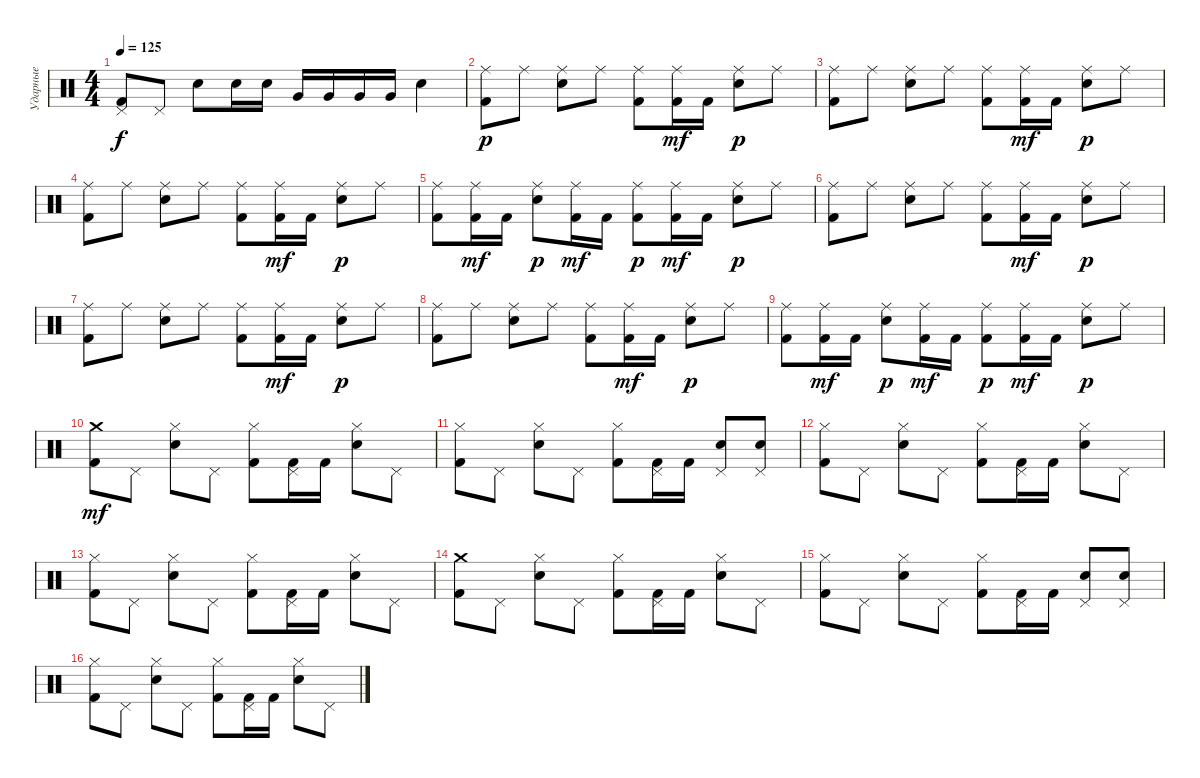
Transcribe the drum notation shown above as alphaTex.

\track ("Ударные" "Ударные") {instrument percussion}
\staff {score}
\articulation defaults
\ts (4 4)
\tempo 125
\clef neutral
\ks c
("Pedal Hi-Hat (hit)" "Kick (hit) 2").8{dy f} "Pedal Hi-Hat (hit)".8 "Snare (hit) 2".8 "Snare (hit) 2".16 "Snare (hit) 2".16 "Very Low Tom (hit)".16 "Very Low Tom (hit)".16 "Very Low Tom (hit)".16 "Very Low Tom (hit)".16 "Snare (hit) 2".4 |
("Ride (middle)" "Kick (hit) 2").8{dy p} "Ride (middle)".8 ("Ride (middle)" "Snare (hit) 2").8 "Ride (middle)".8 ("Ride (middle)" "Kick (hit) 2").8 ("Ride (middle)" "Kick (hit) 2").16{dy mf} "Kick (hit) 2".16 ("Ride (middle)" "Snare (hit) 2").8{dy p} "Ride (middle)".8 |
("Ride (middle)" "Kick (hit) 2").8 "Ride (middle)".8 ("Ride (middle)" "Snare (hit) 2").8 "Ride (middle)".8 ("Ride (middle)" "Kick (hit) 2").8 ("Ride (middle)" "Kick (hit) 2").16{dy mf} "Kick (hit) 2".16 ("Ride (middle)" "Snare (hit) 2").8{dy p} "Ride (middle)".8 |
("Ride (middle)" "Kick (hit) 2").8 "Ride (middle)".8 ("Ride (middle)" "Snare (hit) 2").8 "Ride (middle)".8 ("Ride (middle)" "Kick (hit) 2").8 ("Ride (middle)" "Kick (hit) 2").16{dy mf} "Kick (hit) 2".16 ("Ride (middle)" "Snare (hit) 2").8{dy p} "Ride (middle)".8 |
("Ride (middle)" "Kick (hit) 2").8 ("Ride (middle)" "Kick (hit) 2").16{dy mf} "Kick (hit) 2".16 ("Ride (middle)" "Snare (hit) 2").8{dy p} ("Ride (middle)" "Kick (hit) 2").16{dy mf} "Kick (hit) 2".16 ("Ride (middle)" "Kick (hit) 2").8{dy p} ("Ride (middle)" "Kick (hit) 2").16{dy mf} "Kick (hit) 2".16 ("Ride (middle)" "Snare (hit) 2").8{dy p} "Ride (middle)".8 |
("Ride (middle)" "Kick (hit) 2").8 "Ride (middle)".8 ("Ride (middle)" "Snare (hit) 2").8 "Ride (middle)".8 ("Ride (middle)" "Kick (hit) 2").8 ("Ride (middle)" "Kick (hit) 2").16{dy mf} "Kick (hit) 2".16 ("Ride (middle)" "Snare (hit) 2").8{dy p} "Ride (middle)".8 |
("Ride (middle)" "Kick (hit) 2").8 "Ride (middle)".8 ("Ride (middle)" "Snare (hit) 2").8 "Ride (middle)".8 ("Ride (middle)" "Kick (hit) 2").8 ("Ride (middle)" "Kick (hit) 2").16{dy mf} "Kick (hit) 2".16 ("Ride (middle)" "Snare (hit) 2").8{dy p} "Ride (middle)".8 |
("Ride (middle)" "Kick (hit) 2").8 "Ride (middle)".8 ("Ride (middle)" "Snare (hit) 2").8 "Ride (middle)".8 ("Ride (middle)" "Kick (hit) 2").8 ("Ride (middle)" "Kick (hit) 2").16{dy mf} "Kick (hit) 2".16 ("Ride (middle)" "Snare (hit) 2").8{dy p} "Ride (middle)".8 |
("Ride (middle)" "Kick (hit) 2").8 ("Ride (middle)" "Kick (hit) 2").16{dy mf} "Kick (hit) 2".16 ("Ride (middle)" "Snare (hit) 2").8{dy p} ("Ride (middle)" "Kick (hit) 2").16{dy mf} "Kick (hit) 2".16 ("Ride (middle)" "Kick (hit) 2").8{dy p} ("Ride (middle)" "Kick (hit) 2").16{dy mf} "Kick (hit) 2".16 ("Ride (middle)" "Snare (hit) 2").8{dy p} "Ride (middle)".8 |
("Crash medium (hit)" "Kick (hit) 2").8{dy mf} "Pedal Hi-Hat (hit)".8 ("Hi-Hat (closed)" "Snare (hit) 2").8 "Pedal Hi-Hat (hit)".8 ("Hi-Hat (closed)" "Kick (hit) 2").8 ("Pedal Hi-Hat (hit)" "Kick (hit) 2").16 "Kick (hit) 2".16 ("Hi-Hat (closed)" "Snare (hit) 2").8 "Pedal Hi-Hat (hit)".8 |
("Hi-Hat (closed)" "Kick (hit) 2").8 "Pedal Hi-Hat (hit)".8 ("Hi-Hat (closed)" "Snare (hit) 2").8 "Pedal Hi-Hat (hit)".8 ("Hi-Hat (closed)" "Kick (hit) 2").8 ("Pedal Hi-Hat (hit)" "Kick (hit) 2").16 "Kick (hit) 2".16 ("Pedal Hi-Hat (hit)" "Snare (hit) 2").8 ("Pedal Hi-Hat (hit)" "Snare (hit) 2").8 |
("Hi-Hat (closed)" "Kick (hit) 2").8 "Pedal Hi-Hat (hit)".8 ("Hi-Hat (closed)" "Snare (hit) 2").8 "Pedal Hi-Hat (hit)".8 ("Hi-Hat (closed)" "Kick (hit) 2").8 ("Pedal Hi-Hat (hit)" "Kick (hit) 2").16 "Kick (hit) 2".16 ("Hi-Hat (closed)" "Snare (hit) 2").8 "Pedal Hi-Hat (hit)".8 |
("Hi-Hat (closed)" "Kick (hit) 2").8 "Pedal Hi-Hat (hit)".8 ("Hi-Hat (closed)" "Snare (hit) 2").8 "Pedal Hi-Hat (hit)".8 ("Hi-Hat (closed)" "Kick (hit) 2").8 ("Pedal Hi-Hat (hit)" "Kick (hit) 2").16 "Kick (hit) 2".16 ("Hi-Hat (closed)" "Snare (hit) 2").8 "Pedal Hi-Hat (hit)".8 |
("Crash medium (hit)" "Kick (hit) 2").8 "Pedal Hi-Hat (hit)".8 ("Hi-Hat (closed)" "Snare (hit) 2").8 "Pedal Hi-Hat (hit)".8 ("Hi-Hat (closed)" "Kick (hit) 2").8 ("Pedal Hi-Hat (hit)" "Kick (hit) 2").16 "Kick (hit) 2".16 ("Hi-Hat (closed)" "Snare (hit) 2").8 "Pedal Hi-Hat (hit)".8 |
("Hi-Hat (closed)" "Kick (hit) 2").8 "Pedal Hi-Hat (hit)".8 ("Hi-Hat (closed)" "Snare (hit) 2").8 "Pedal Hi-Hat (hit)".8 ("Hi-Hat (closed)" "Kick (hit) 2").8 ("Pedal Hi-Hat (hit)" "Kick (hit) 2").16 "Kick (hit) 2".16 ("Pedal Hi-Hat (hit)" "Snare (hit) 2").8 ("Pedal Hi-Hat (hit)" "Snare (hit) 2").8 |
("Hi-Hat (closed)" "Kick (hit) 2").8 "Pedal Hi-Hat (hit)".8 ("Hi-Hat (closed)" "Snare (hit) 2").8 "Pedal Hi-Hat (hit)".8 ("Hi-Hat (closed)" "Kick (hit) 2").8 ("Pedal Hi-Hat (hit)" "Kick (hit) 2").16 "Kick (hit) 2".16 ("Hi-Hat (closed)" "Snare (hit) 2").8 "Pedal Hi-Hat (hit)".8
